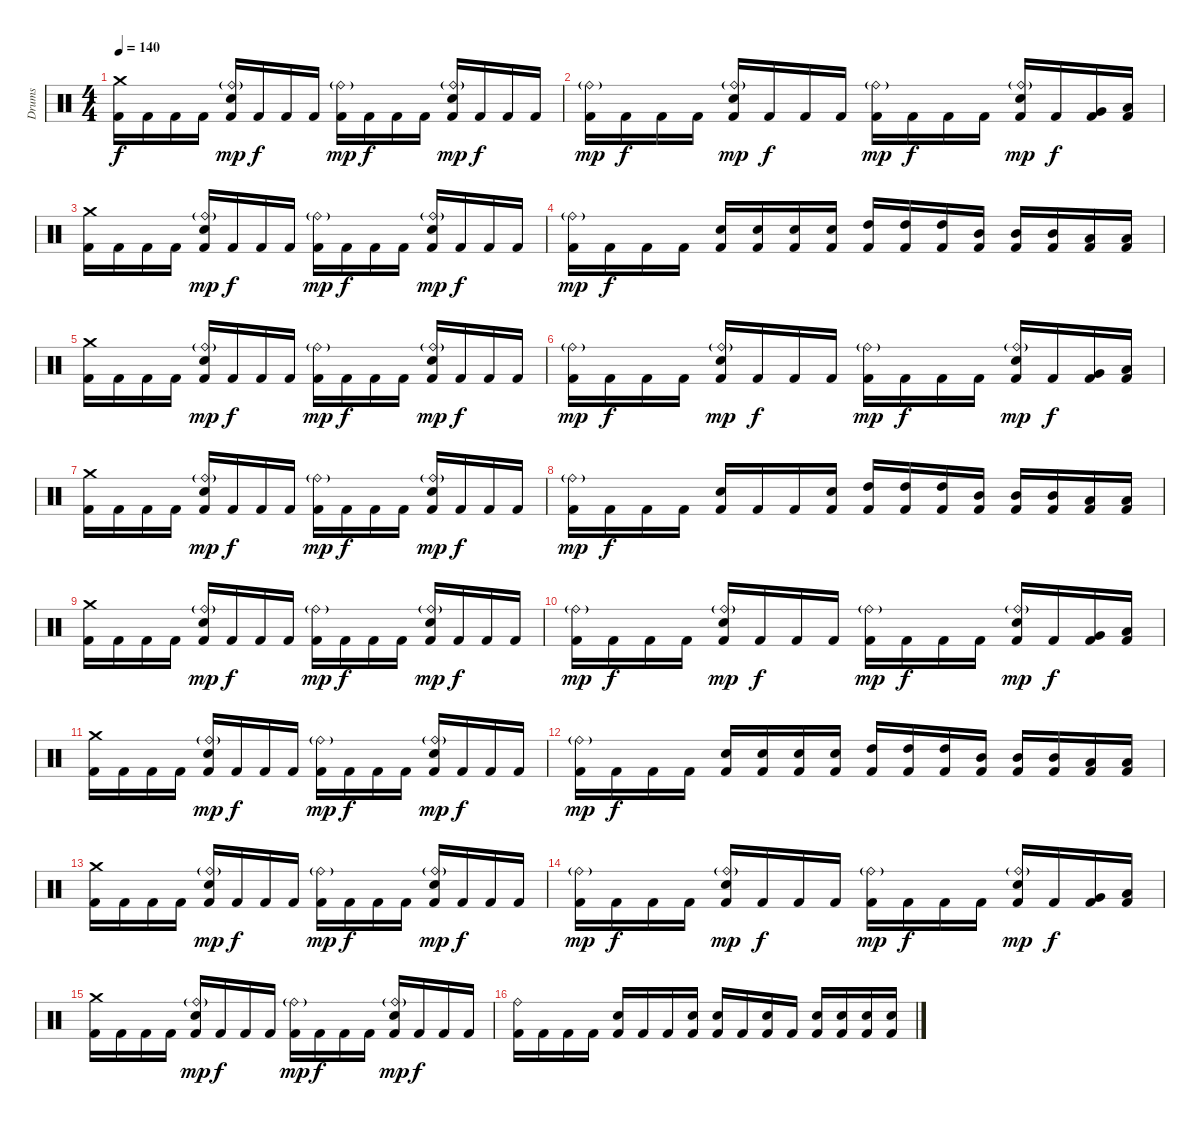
\track ("Drums" "Drums") {instrument percussion}
\staff {score}
\articulation defaults
\ts (4 4)
\tempo 140
\clef neutral
\ks c
("Crash medium (hit)" "Kick (hit) 2").16{dy f} "Kick (hit) 2".16 "Kick (hit) 2".16 "Kick (hit) 2".16 ("Ride (bell)"{g} "Electric Snare (hit)" "Kick (hit) 2").16{dy mp} "Kick (hit) 2".16{dy f} "Kick (hit) 2".16 "Kick (hit) 2".16 ("Ride (bell)"{g} "Kick (hit) 2").16{dy mp} "Kick (hit) 2".16{dy f} "Kick (hit) 2".16 "Kick (hit) 2".16 ("Ride (bell)"{g} "Electric Snare (hit)" "Kick (hit) 2").16{dy mp} "Kick (hit) 2".16{dy f} "Kick (hit) 2".16 "Kick (hit) 2".16 |
("Ride (bell)"{g} "Kick (hit) 2").16{dy mp} "Kick (hit) 2".16{dy f} "Kick (hit) 2".16 "Kick (hit) 2".16 ("Ride (bell)"{g} "Electric Snare (hit)" "Kick (hit) 2").16{dy mp} "Kick (hit) 2".16{dy f} "Kick (hit) 2".16 "Kick (hit) 2".16 ("Ride (bell)"{g} "Kick (hit) 2").16{dy mp} "Kick (hit) 2".16{dy f} "Kick (hit) 2".16 "Kick (hit) 2".16 ("Ride (bell)"{g} "Electric Snare (hit)" "Kick (hit) 2").16{dy mp} "Kick (hit) 2".16{dy f} ("Very Low Tom (hit)" "Kick (hit) 2").16 ("Low Floor Tom (hit)" "Kick (hit) 2").16 |
("Crash medium (hit)" "Kick (hit) 2").16 "Kick (hit) 2".16 "Kick (hit) 2".16 "Kick (hit) 2".16 ("Ride (bell)"{g} "Electric Snare (hit)" "Kick (hit) 2").16{dy mp} "Kick (hit) 2".16{dy f} "Kick (hit) 2".16 "Kick (hit) 2".16 ("Ride (bell)"{g} "Kick (hit) 2").16{dy mp} "Kick (hit) 2".16{dy f} "Kick (hit) 2".16 "Kick (hit) 2".16 ("Ride (bell)"{g} "Electric Snare (hit)" "Kick (hit) 2").16{dy mp} "Kick (hit) 2".16{dy f} "Kick (hit) 2".16 "Kick (hit) 2".16 |
("Ride (bell)"{g} "Kick (hit) 2").16{dy mp} "Kick (hit) 2".16{dy f} "Kick (hit) 2".16 "Kick (hit) 2".16 ("Electric Snare (hit)" "Kick (hit) 2").16 ("Electric Snare (hit)" "Kick (hit) 2").16 ("Electric Snare (hit)" "Kick (hit) 2").16 ("Electric Snare (hit)" "Kick (hit) 2").16 ("High Tom (hit)" "Kick (hit) 2").16 ("High Tom (hit)" "Kick (hit) 2").16 ("High Tom (hit)" "Kick (hit) 2").16 ("Mid Tom (hit)" "Kick (hit) 2").16 ("Mid Tom (hit)" "Kick (hit) 2").16 ("Mid Tom (hit)" "Kick (hit) 2").16 ("Low Tom (hit)" "Kick (hit) 2").16 ("Low Tom (hit)" "Kick (hit) 2").16 |
("Crash medium (hit)" "Kick (hit) 2").16 "Kick (hit) 2".16 "Kick (hit) 2".16 "Kick (hit) 2".16 ("Ride (bell)"{g} "Electric Snare (hit)" "Kick (hit) 2").16{dy mp} "Kick (hit) 2".16{dy f} "Kick (hit) 2".16 "Kick (hit) 2".16 ("Ride (bell)"{g} "Kick (hit) 2").16{dy mp} "Kick (hit) 2".16{dy f} "Kick (hit) 2".16 "Kick (hit) 2".16 ("Ride (bell)"{g} "Electric Snare (hit)" "Kick (hit) 2").16{dy mp} "Kick (hit) 2".16{dy f} "Kick (hit) 2".16 "Kick (hit) 2".16 |
("Ride (bell)"{g} "Kick (hit) 2").16{dy mp} "Kick (hit) 2".16{dy f} "Kick (hit) 2".16 "Kick (hit) 2".16 ("Ride (bell)"{g} "Electric Snare (hit)" "Kick (hit) 2").16{dy mp} "Kick (hit) 2".16{dy f} "Kick (hit) 2".16 "Kick (hit) 2".16 ("Ride (bell)"{g} "Kick (hit) 2").16{dy mp} "Kick (hit) 2".16{dy f} "Kick (hit) 2".16 "Kick (hit) 2".16 ("Ride (bell)"{g} "Electric Snare (hit)" "Kick (hit) 2").16{dy mp} "Kick (hit) 2".16{dy f} ("Very Low Tom (hit)" "Kick (hit) 2").16 ("Low Floor Tom (hit)" "Kick (hit) 2").16 |
("Crash medium (hit)" "Kick (hit) 2").16 "Kick (hit) 2".16 "Kick (hit) 2".16 "Kick (hit) 2".16 ("Ride (bell)"{g} "Electric Snare (hit)" "Kick (hit) 2").16{dy mp} "Kick (hit) 2".16{dy f} "Kick (hit) 2".16 "Kick (hit) 2".16 ("Ride (bell)"{g} "Kick (hit) 2").16{dy mp} "Kick (hit) 2".16{dy f} "Kick (hit) 2".16 "Kick (hit) 2".16 ("Ride (bell)"{g} "Electric Snare (hit)" "Kick (hit) 2").16{dy mp} "Kick (hit) 2".16{dy f} "Kick (hit) 2".16 "Kick (hit) 2".16 |
("Ride (bell)"{g} "Kick (hit) 2").16{dy mp} "Kick (hit) 2".16{dy f} "Kick (hit) 2".16 "Kick (hit) 2".16 ("Electric Snare (hit)" "Kick (hit) 2").16 "Kick (hit) 2".16 "Kick (hit) 2".16 ("Electric Snare (hit)" "Kick (hit) 2").16 ("High Tom (hit)" "Kick (hit) 2").16 ("High Tom (hit)" "Kick (hit) 2").16 ("High Tom (hit)" "Kick (hit) 2").16 ("Mid Tom (hit)" "Kick (hit) 2").16 ("Mid Tom (hit)" "Kick (hit) 2").16 ("Mid Tom (hit)" "Kick (hit) 2").16 ("Low Tom (hit)" "Kick (hit) 2").16 ("Low Tom (hit)" "Kick (hit) 2").16 |
("Crash medium (hit)" "Kick (hit) 2").16 "Kick (hit) 2".16 "Kick (hit) 2".16 "Kick (hit) 2".16 ("Ride (bell)"{g} "Electric Snare (hit)" "Kick (hit) 2").16{dy mp} "Kick (hit) 2".16{dy f} "Kick (hit) 2".16 "Kick (hit) 2".16 ("Ride (bell)"{g} "Kick (hit) 2").16{dy mp} "Kick (hit) 2".16{dy f} "Kick (hit) 2".16 "Kick (hit) 2".16 ("Ride (bell)"{g} "Electric Snare (hit)" "Kick (hit) 2").16{dy mp} "Kick (hit) 2".16{dy f} "Kick (hit) 2".16 "Kick (hit) 2".16 |
("Ride (bell)"{g} "Kick (hit) 2").16{dy mp} "Kick (hit) 2".16{dy f} "Kick (hit) 2".16 "Kick (hit) 2".16 ("Ride (bell)"{g} "Electric Snare (hit)" "Kick (hit) 2").16{dy mp} "Kick (hit) 2".16{dy f} "Kick (hit) 2".16 "Kick (hit) 2".16 ("Ride (bell)"{g} "Kick (hit) 2").16{dy mp} "Kick (hit) 2".16{dy f} "Kick (hit) 2".16 "Kick (hit) 2".16 ("Ride (bell)"{g} "Electric Snare (hit)" "Kick (hit) 2").16{dy mp} "Kick (hit) 2".16{dy f} ("Very Low Tom (hit)" "Kick (hit) 2").16 ("Low Floor Tom (hit)" "Kick (hit) 2").16 |
("Crash medium (hit)" "Kick (hit) 2").16 "Kick (hit) 2".16 "Kick (hit) 2".16 "Kick (hit) 2".16 ("Ride (bell)"{g} "Electric Snare (hit)" "Kick (hit) 2").16{dy mp} "Kick (hit) 2".16{dy f} "Kick (hit) 2".16 "Kick (hit) 2".16 ("Ride (bell)"{g} "Kick (hit) 2").16{dy mp} "Kick (hit) 2".16{dy f} "Kick (hit) 2".16 "Kick (hit) 2".16 ("Ride (bell)"{g} "Electric Snare (hit)" "Kick (hit) 2").16{dy mp} "Kick (hit) 2".16{dy f} "Kick (hit) 2".16 "Kick (hit) 2".16 |
("Ride (bell)"{g} "Kick (hit) 2").16{dy mp} "Kick (hit) 2".16{dy f} "Kick (hit) 2".16 "Kick (hit) 2".16 ("Electric Snare (hit)" "Kick (hit) 2").16 ("Electric Snare (hit)" "Kick (hit) 2").16 ("Electric Snare (hit)" "Kick (hit) 2").16 ("Electric Snare (hit)" "Kick (hit) 2").16 ("High Tom (hit)" "Kick (hit) 2").16 ("High Tom (hit)" "Kick (hit) 2").16 ("High Tom (hit)" "Kick (hit) 2").16 ("Mid Tom (hit)" "Kick (hit) 2").16 ("Mid Tom (hit)" "Kick (hit) 2").16 ("Mid Tom (hit)" "Kick (hit) 2").16 ("Low Tom (hit)" "Kick (hit) 2").16 ("Low Tom (hit)" "Kick (hit) 2").16 |
("Crash medium (hit)" "Kick (hit) 2").16 "Kick (hit) 2".16 "Kick (hit) 2".16 "Kick (hit) 2".16 ("Ride (bell)"{g} "Electric Snare (hit)" "Kick (hit) 2").16{dy mp} "Kick (hit) 2".16{dy f} "Kick (hit) 2".16 "Kick (hit) 2".16 ("Ride (bell)"{g} "Kick (hit) 2").16{dy mp} "Kick (hit) 2".16{dy f} "Kick (hit) 2".16 "Kick (hit) 2".16 ("Ride (bell)"{g} "Electric Snare (hit)" "Kick (hit) 2").16{dy mp} "Kick (hit) 2".16{dy f} "Kick (hit) 2".16 "Kick (hit) 2".16 |
("Ride (bell)"{g} "Kick (hit) 2").16{dy mp} "Kick (hit) 2".16{dy f} "Kick (hit) 2".16 "Kick (hit) 2".16 ("Ride (bell)"{g} "Electric Snare (hit)" "Kick (hit) 2").16{dy mp} "Kick (hit) 2".16{dy f} "Kick (hit) 2".16 "Kick (hit) 2".16 ("Ride (bell)"{g} "Kick (hit) 2").16{dy mp} "Kick (hit) 2".16{dy f} "Kick (hit) 2".16 "Kick (hit) 2".16 ("Ride (bell)"{g} "Electric Snare (hit)" "Kick (hit) 2").16{dy mp} "Kick (hit) 2".16{dy f} ("Very Low Tom (hit)" "Kick (hit) 2").16 ("Low Floor Tom (hit)" "Kick (hit) 2").16 |
("Crash medium (hit)" "Kick (hit) 2").16 "Kick (hit) 2".16 "Kick (hit) 2".16 "Kick (hit) 2".16 ("Ride (bell)"{g} "Electric Snare (hit)" "Kick (hit) 2").16{dy mp} "Kick (hit) 2".16{dy f} "Kick (hit) 2".16 "Kick (hit) 2".16 ("Ride (bell)"{g} "Kick (hit) 2").16{dy mp} "Kick (hit) 2".16{dy f} "Kick (hit) 2".16 "Kick (hit) 2".16 ("Ride (bell)"{g} "Electric Snare (hit)" "Kick (hit) 2").16{dy mp} "Kick (hit) 2".16{dy f} "Kick (hit) 2".16 "Kick (hit) 2".16 |
("Ride (bell)" "Kick (hit) 2").16 "Kick (hit) 2".16 "Kick (hit) 2".16 "Kick (hit) 2".16 ("Electric Snare (hit)" "Kick (hit) 2").16 "Kick (hit) 2".16 "Kick (hit) 2".16 ("Electric Snare (hit)" "Kick (hit) 2").16 ("Electric Snare (hit)" "Kick (hit) 2").16 "Kick (hit) 2".16 ("Electric Snare (hit)" "Kick (hit) 2").16 "Kick (hit) 2".16 ("Electric Snare (hit)" "Kick (hit) 2").16 ("Electric Snare (hit)" "Kick (hit) 2").16 ("Electric Snare (hit)" "Kick (hit) 2").16 ("Electric Snare (hit)" "Kick (hit) 2").16
